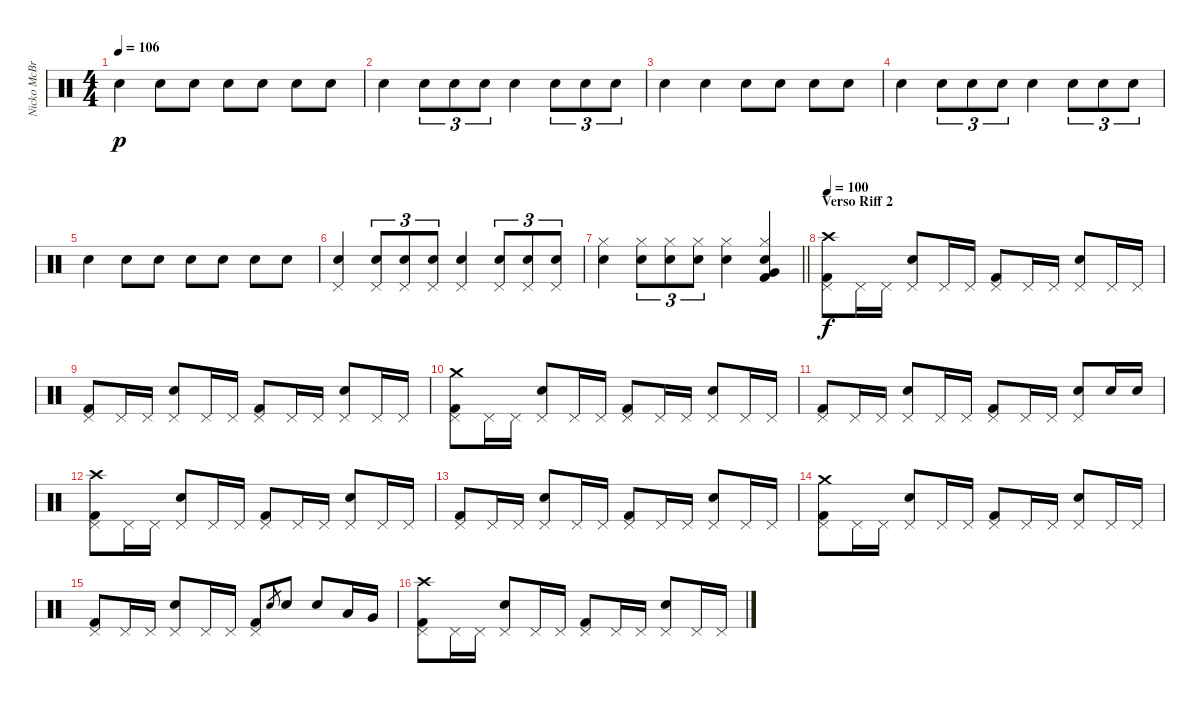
\track ("Nicko McBrain" "Nicko McBr") {instrument percussion}
\staff {score}
\articulation defaults
\ts (4 4)
\tempo 106
\clef neutral
\ks c "Snare (hit) 2".4{dy p} "Snare (hit) 2".8 "Snare (hit) 2".8 "Snare (hit) 2".8 "Snare (hit) 2".8 "Snare (hit) 2".8 "Snare (hit) 2".8
|
"Snare (hit) 2".4 "Snare (hit) 2".8{tu (3 2)} "Snare (hit) 2".8{tu (3 2)} "Snare (hit) 2".8{tu (3 2)} "Snare (hit) 2".4 "Snare (hit) 2".8{tu (3 2)} "Snare (hit) 2".8{tu (3 2)} "Snare (hit) 2".8{tu (3 2)} |
"Snare (hit) 2".4 "Snare (hit) 2".4 "Snare (hit) 2".8 "Snare (hit) 2".8 "Snare (hit) 2".8 "Snare (hit) 2".8 |
"Snare (hit) 2".4 "Snare (hit) 2".8{tu (3 2)} "Snare (hit) 2".8{tu (3 2)} "Snare (hit) 2".8{tu (3 2)} "Snare (hit) 2".4 "Snare (hit) 2".8{tu (3 2)} "Snare (hit) 2".8{tu (3 2)} "Snare (hit) 2".8{tu (3 2)} |
"Snare (hit) 2".4 "Snare (hit) 2".8 "Snare (hit) 2".8 "Snare (hit) 2".8 "Snare (hit) 2".8 "Snare (hit) 2".8 "Snare (hit) 2".8 |
("Pedal Hi-Hat (hit)" "Snare (hit) 2").4 ("Pedal Hi-Hat (hit)" "Snare (hit) 2").8{tu (3 2)} ("Pedal Hi-Hat (hit)" "Snare (hit) 2").8{tu (3 2)} ("Pedal Hi-Hat (hit)" "Snare (hit) 2").8{tu (3 2)} ("Pedal Hi-Hat (hit)" "Snare (hit) 2").4 ("Pedal Hi-Hat (hit)" "Snare (hit) 2").8{tu (3 2)} ("Pedal Hi-Hat (hit)" "Snare (hit) 2").8{tu (3 2)} ("Pedal Hi-Hat (hit)" "Snare (hit) 2").8{tu (3 2)} |
\barLineRight lightlight
("Hi-Hat (closed)" "Snare (hit) 2").4 ("Hi-Hat (closed)" "Snare (hit) 2").8{tu (3 2)} ("Hi-Hat (closed)" "Snare (hit) 2").8{tu (3 2)} ("Hi-Hat (closed)" "Snare (hit) 2").8{tu (3 2)} ("Hi-Hat (closed)" "Snare (hit) 2").4 ("Hi-Hat (closed)" "Snare (hit) 2" "Very Low Tom (hit)" "Kick (hit) 2").4 |
\section ("" "Verso Riff 2")
\tempo 100
("Kick (hit) 2" "Pedal Hi-Hat (hit)" "Crash high (hit)").8{dy f volume 14} "Pedal Hi-Hat (hit)".16 "Pedal Hi-Hat (hit)".16 ("Snare (hit) 2" "Pedal Hi-Hat (hit)").8 "Pedal Hi-Hat (hit)".16 "Pedal Hi-Hat (hit)".16 ("Kick (hit) 2" "Pedal Hi-Hat (hit)").8 "Pedal Hi-Hat (hit)".16 "Pedal Hi-Hat (hit)".16 ("Snare (hit) 2" "Pedal Hi-Hat (hit)").8 "Pedal Hi-Hat (hit)".16 "Pedal Hi-Hat (hit)".16 |
("Kick (hit) 2" "Pedal Hi-Hat (hit)").8 "Pedal Hi-Hat (hit)".16 "Pedal Hi-Hat (hit)".16 ("Snare (hit) 2" "Pedal Hi-Hat (hit)").8 "Pedal Hi-Hat (hit)".16 "Pedal Hi-Hat (hit)".16 ("Kick (hit) 2" "Pedal Hi-Hat (hit)").8 "Pedal Hi-Hat (hit)".16 "Pedal Hi-Hat (hit)".16 ("Snare (hit) 2" "Pedal Hi-Hat (hit)").8 "Pedal Hi-Hat (hit)".16 "Pedal Hi-Hat (hit)".16 |
("Kick (hit) 2" "Pedal Hi-Hat (hit)" "Crash medium (hit)").8 "Pedal Hi-Hat (hit)".16 "Pedal Hi-Hat (hit)".16 ("Snare (hit) 2" "Pedal Hi-Hat (hit)").8 "Pedal Hi-Hat (hit)".16 "Pedal Hi-Hat (hit)".16 ("Kick (hit) 2" "Pedal Hi-Hat (hit)").8 "Pedal Hi-Hat (hit)".16 "Pedal Hi-Hat (hit)".16 ("Snare (hit) 2" "Pedal Hi-Hat (hit)").8 "Pedal Hi-Hat (hit)".16 "Pedal Hi-Hat (hit)".16 |
("Kick (hit) 2" "Pedal Hi-Hat (hit)").8 "Pedal Hi-Hat (hit)".16 "Pedal Hi-Hat (hit)".16 ("Snare (hit) 2" "Pedal Hi-Hat (hit)").8 "Pedal Hi-Hat (hit)".16 "Pedal Hi-Hat (hit)".16 ("Kick (hit) 2" "Pedal Hi-Hat (hit)").8 "Pedal Hi-Hat (hit)".16 "Pedal Hi-Hat (hit)".16 ("Snare (hit) 2" "Pedal Hi-Hat (hit)").8 "Snare (hit) 2".16 "Snare (hit) 2".16 |
("Kick (hit) 2" "Pedal Hi-Hat (hit)" "Crash high (hit)").8 "Pedal Hi-Hat (hit)".16 "Pedal Hi-Hat (hit)".16 ("Snare (hit) 2" "Pedal Hi-Hat (hit)").8 "Pedal Hi-Hat (hit)".16 "Pedal Hi-Hat (hit)".16 ("Kick (hit) 2" "Pedal Hi-Hat (hit)").8 "Pedal Hi-Hat (hit)".16 "Pedal Hi-Hat (hit)".16 ("Snare (hit) 2" "Pedal Hi-Hat (hit)").8 "Pedal Hi-Hat (hit)".16 "Pedal Hi-Hat (hit)".16 |
("Kick (hit) 2" "Pedal Hi-Hat (hit)").8 "Pedal Hi-Hat (hit)".16 "Pedal Hi-Hat (hit)".16 ("Snare (hit) 2" "Pedal Hi-Hat (hit)").8 "Pedal Hi-Hat (hit)".16 "Pedal Hi-Hat (hit)".16 ("Kick (hit) 2" "Pedal Hi-Hat (hit)").8 "Pedal Hi-Hat (hit)".16 "Pedal Hi-Hat (hit)".16 ("Snare (hit) 2" "Pedal Hi-Hat (hit)").8 "Pedal Hi-Hat (hit)".16 "Pedal Hi-Hat (hit)".16 |
("Kick (hit) 2" "Pedal Hi-Hat (hit)" "Crash medium (hit)").8 "Pedal Hi-Hat (hit)".16 "Pedal Hi-Hat (hit)".16 ("Snare (hit) 2" "Pedal Hi-Hat (hit)").8 "Pedal Hi-Hat (hit)".16 "Pedal Hi-Hat (hit)".16 ("Kick (hit) 2" "Pedal Hi-Hat (hit)").8 "Pedal Hi-Hat (hit)".16 "Pedal Hi-Hat (hit)".16 ("Snare (hit) 2" "Pedal Hi-Hat (hit)").8 "Pedal Hi-Hat (hit)".16 "Pedal Hi-Hat (hit)".16 |
("Kick (hit) 2" "Pedal Hi-Hat (hit)").8 "Pedal Hi-Hat (hit)".16 "Pedal Hi-Hat (hit)".16 ("Snare (hit) 2" "Pedal Hi-Hat (hit)").8 "Pedal Hi-Hat (hit)".16 "Pedal Hi-Hat (hit)".16 ("Kick (hit) 2" "Pedal Hi-Hat (hit)").8 "Snare (hit) 2".8{gr} "Snare (hit) 2".8 "Snare (hit) 2".8 "Low Tom (hit)".16 "Very Low Tom (hit)".16 |
("Kick (hit) 2" "Pedal Hi-Hat (hit)" "Crash high (hit)").8 "Pedal Hi-Hat (hit)".16 "Pedal Hi-Hat (hit)".16 ("Snare (hit) 2" "Pedal Hi-Hat (hit)").8 "Pedal Hi-Hat (hit)".16 "Pedal Hi-Hat (hit)".16 ("Kick (hit) 2" "Pedal Hi-Hat (hit)").8 "Pedal Hi-Hat (hit)".16 "Pedal Hi-Hat (hit)".16 ("Snare (hit) 2" "Pedal Hi-Hat (hit)").8 "Pedal Hi-Hat (hit)".16 "Pedal Hi-Hat (hit)".16
